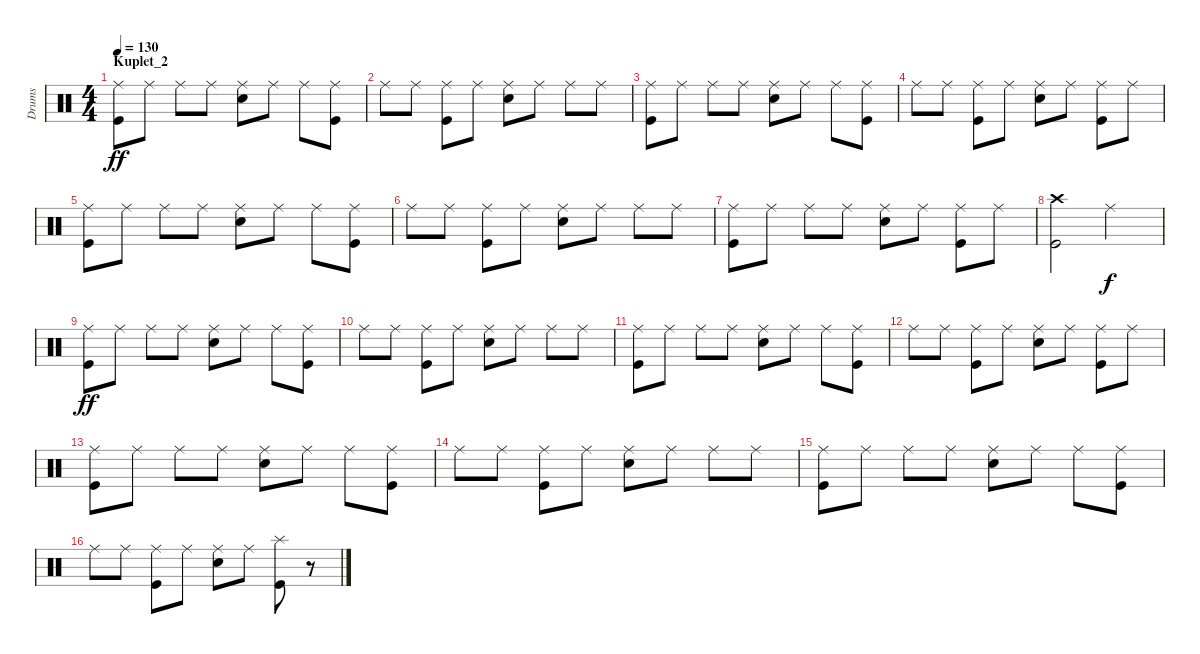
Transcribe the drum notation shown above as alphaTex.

\track ("Drums" "Drums") {instrument percussion}
\staff {score}
\articulation defaults
\ts (4 4)
\section ("" "Kuplet_2")
\tempo 130
\clef neutral
\ks c
("Ride (middle)" "Kick (hit)").8{dy ff} "Ride (middle)".8 "Ride (middle)".8 "Ride (middle)".8 ("Ride (middle)" "Snare (hit) 2").8 "Ride (middle)".8 "Ride (middle)".8 ("Ride (middle)" "Kick (hit)").8 |
"Ride (middle)".8 "Ride (middle)".8 ("Ride (middle)" "Kick (hit)").8 "Ride (middle)".8 ("Ride (middle)" "Snare (hit) 2").8 "Ride (middle)".8 "Ride (middle)".8 "Ride (middle)".8 |
("Ride (middle)" "Kick (hit)").8 "Ride (middle)".8 "Ride (middle)".8 "Ride (middle)".8 ("Ride (middle)" "Snare (hit) 2").8 "Ride (middle)".8 "Ride (middle)".8 ("Ride (middle)" "Kick (hit)").8 |
"Ride (middle)".8 "Ride (middle)".8 ("Ride (middle)" "Kick (hit)").8 "Ride (middle)".8 ("Ride (middle)" "Snare (hit) 2").8 "Ride (middle)".8 ("Ride (middle)" "Kick (hit)").8 "Ride (middle)".8 |
("Ride (middle)" "Kick (hit)").8 "Ride (middle)".8 "Ride (middle)".8 "Ride (middle)".8 ("Ride (middle)" "Snare (hit) 2").8 "Ride (middle)".8 "Ride (middle)".8 ("Ride (middle)" "Kick (hit)").8 |
"Ride (middle)".8 "Ride (middle)".8 ("Ride (middle)" "Kick (hit)").8 "Ride (middle)".8 ("Ride (middle)" "Snare (hit) 2").8 "Ride (middle)".8 "Ride (middle)".8 "Ride (middle)".8 |
("Ride (middle)" "Kick (hit)").8 "Ride (middle)".8 "Ride (middle)".8 "Ride (middle)".8 ("Ride (middle)" "Snare (hit) 2").8 "Ride (middle)".8 ("Ride (middle)" "Kick (hit)").8 "Ride (middle)".8 |
("Crash high (hit)" "Kick (hit)").2 "Ride (middle)".2{dy f} |
("Ride (middle)" "Kick (hit)").8{dy ff} "Ride (middle)".8 "Ride (middle)".8 "Ride (middle)".8 ("Ride (middle)" "Snare (hit) 2").8 "Ride (middle)".8 "Ride (middle)".8 ("Ride (middle)" "Kick (hit)").8 |
"Ride (middle)".8 "Ride (middle)".8 ("Ride (middle)" "Kick (hit)").8 "Ride (middle)".8 ("Ride (middle)" "Snare (hit) 2").8 "Ride (middle)".8 "Ride (middle)".8 "Ride (middle)".8 |
("Ride (middle)" "Kick (hit)").8 "Ride (middle)".8 "Ride (middle)".8 "Ride (middle)".8 ("Ride (middle)" "Snare (hit) 2").8 "Ride (middle)".8 "Ride (middle)".8 ("Ride (middle)" "Kick (hit)").8 |
"Ride (middle)".8 "Ride (middle)".8 ("Ride (middle)" "Kick (hit)").8 "Ride (middle)".8 ("Ride (middle)" "Snare (hit) 2").8 "Ride (middle)".8 ("Ride (middle)" "Kick (hit)").8 "Ride (middle)".8 |
("Ride (middle)" "Kick (hit)").8 "Ride (middle)".8 "Ride (middle)".8 "Ride (middle)".8 ("Ride (middle)" "Snare (hit) 2").8 "Ride (middle)".8 "Ride (middle)".8 ("Ride (middle)" "Kick (hit)").8 |
"Ride (middle)".8 "Ride (middle)".8 ("Ride (middle)" "Kick (hit)").8 "Ride (middle)".8 ("Ride (middle)" "Snare (hit) 2").8 "Ride (middle)".8 "Ride (middle)".8 "Ride (middle)".8 |
("Ride (middle)" "Kick (hit)").8 "Ride (middle)".8 "Ride (middle)".8 "Ride (middle)".8 ("Ride (middle)" "Snare (hit) 2").8 "Ride (middle)".8 "Ride (middle)".8 ("Ride (middle)" "Kick (hit)").8 |
"Ride (middle)".8 "Ride (middle)".8 ("Ride (middle)" "Kick (hit)").8 "Ride (middle)".8 ("Ride (middle)" "Snare (hit) 2").8 "Ride (middle)".8 ("Splash (hit)" "Kick (hit)").8 r.8
